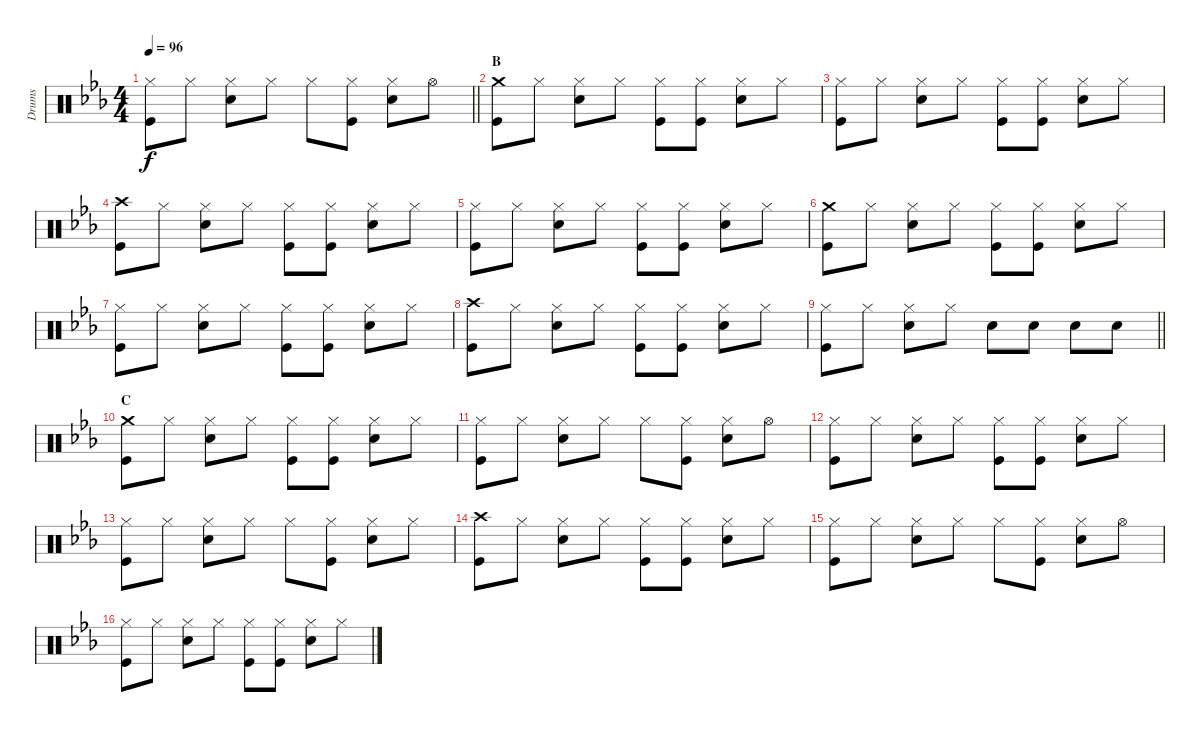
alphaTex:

\track ("Drums" "Drums") {instrument percussion}
\staff {score}
\articulation defaults
\ts (4 4)
\tempo 96
\clef neutral
\barLineRight lightlight
\ks cminor
("Hi-Hat (closed)" "Kick (hit)").8{dy f} "Hi-Hat (closed)".8 ("Hi-Hat (closed)" "Snare (hit) 2").8 "Hi-Hat (closed)".8 "Hi-Hat (closed)".8 ("Hi-Hat (closed)" "Kick (hit)").8 ("Hi-Hat (closed)" "Snare (hit) 2").8 "Hi-Hat (open)".8 |
\section ("" "B")
("Crash medium (hit)" "Kick (hit)").8 "Hi-Hat (closed)".8 ("Hi-Hat (closed)" "Snare (hit) 2").8 "Hi-Hat (closed)".8 ("Hi-Hat (closed)" "Kick (hit)").8 ("Hi-Hat (closed)" "Kick (hit)").8 ("Hi-Hat (closed)" "Snare (hit) 2").8 "Hi-Hat (closed)".8 |
("Hi-Hat (closed)" "Kick (hit)").8 "Hi-Hat (closed)".8 ("Hi-Hat (closed)" "Snare (hit) 2").8 "Hi-Hat (closed)".8 ("Hi-Hat (closed)" "Kick (hit)").8 ("Hi-Hat (closed)" "Kick (hit)").8 ("Hi-Hat (closed)" "Snare (hit) 2").8 "Hi-Hat (closed)".8 |
("Crash high (hit)" "Kick (hit)").8 "Hi-Hat (closed)".8 ("Hi-Hat (closed)" "Snare (hit) 2").8 "Hi-Hat (closed)".8 ("Hi-Hat (closed)" "Kick (hit)").8 ("Hi-Hat (closed)" "Kick (hit)").8 ("Hi-Hat (closed)" "Snare (hit) 2").8 "Hi-Hat (closed)".8 |
("Hi-Hat (closed)" "Kick (hit)").8 "Hi-Hat (closed)".8 ("Hi-Hat (closed)" "Snare (hit) 2").8 "Hi-Hat (closed)".8 ("Hi-Hat (closed)" "Kick (hit)").8 ("Hi-Hat (closed)" "Kick (hit)").8 ("Hi-Hat (closed)" "Snare (hit) 2").8 "Hi-Hat (closed)".8 |
("Crash medium (hit)" "Kick (hit)").8 "Hi-Hat (closed)".8 ("Hi-Hat (closed)" "Snare (hit) 2").8 "Hi-Hat (closed)".8 ("Hi-Hat (closed)" "Kick (hit)").8 ("Hi-Hat (closed)" "Kick (hit)").8 ("Hi-Hat (closed)" "Snare (hit) 2").8 "Hi-Hat (closed)".8 |
("Hi-Hat (closed)" "Kick (hit)").8 "Hi-Hat (closed)".8 ("Hi-Hat (closed)" "Snare (hit) 2").8 "Hi-Hat (closed)".8 ("Hi-Hat (closed)" "Kick (hit)").8 ("Hi-Hat (closed)" "Kick (hit)").8 ("Hi-Hat (closed)" "Snare (hit) 2").8 "Hi-Hat (closed)".8 |
("Crash high (hit)" "Kick (hit)").8 "Hi-Hat (closed)".8 ("Hi-Hat (closed)" "Snare (hit) 2").8 "Hi-Hat (closed)".8 ("Hi-Hat (closed)" "Kick (hit)").8 ("Hi-Hat (closed)" "Kick (hit)").8 ("Hi-Hat (closed)" "Snare (hit) 2").8 "Hi-Hat (closed)".8 |
\barLineRight lightlight
("Hi-Hat (closed)" "Kick (hit)").8 "Hi-Hat (closed)".8 ("Hi-Hat (closed)" "Snare (hit) 2").8 "Hi-Hat (closed)".8 "Snare (hit) 2".8 "Snare (hit) 2".8 "Snare (hit) 2".8 "Snare (hit) 2".8 |
\section ("" "C")
("Crash medium (hit)" "Kick (hit)").8 "Hi-Hat (closed)".8 ("Hi-Hat (closed)" "Snare (hit) 2").8 "Hi-Hat (closed)".8 ("Hi-Hat (closed)" "Kick (hit)").8 ("Hi-Hat (closed)" "Kick (hit)").8 ("Hi-Hat (closed)" "Snare (hit) 2").8 "Hi-Hat (closed)".8 |
("Hi-Hat (closed)" "Kick (hit)").8 "Hi-Hat (closed)".8 ("Hi-Hat (closed)" "Snare (hit) 2").8 "Hi-Hat (closed)".8 "Hi-Hat (closed)".8 ("Hi-Hat (closed)" "Kick (hit)").8 ("Hi-Hat (closed)" "Snare (hit) 2").8 "Hi-Hat (open)".8 |
("Hi-Hat (closed)" "Kick (hit)").8 "Hi-Hat (closed)".8 ("Hi-Hat (closed)" "Snare (hit) 2").8 "Hi-Hat (closed)".8 ("Hi-Hat (closed)" "Kick (hit)").8 ("Hi-Hat (closed)" "Kick (hit)").8 ("Hi-Hat (closed)" "Snare (hit) 2").8 "Hi-Hat (closed)".8 |
("Hi-Hat (closed)" "Kick (hit)").8 "Hi-Hat (closed)".8 ("Hi-Hat (closed)" "Snare (hit) 2").8 "Hi-Hat (closed)".8 "Hi-Hat (closed)".8 ("Hi-Hat (closed)" "Kick (hit)").8 ("Hi-Hat (closed)" "Snare (hit) 2").8 "Hi-Hat (closed)".8 |
("Crash high (hit)" "Kick (hit)").8 "Hi-Hat (closed)".8 ("Hi-Hat (closed)" "Snare (hit) 2").8 "Hi-Hat (closed)".8 ("Hi-Hat (closed)" "Kick (hit)").8 ("Hi-Hat (closed)" "Kick (hit)").8 ("Hi-Hat (closed)" "Snare (hit) 2").8 "Hi-Hat (closed)".8 |
("Hi-Hat (closed)" "Kick (hit)").8 "Hi-Hat (closed)".8 ("Hi-Hat (closed)" "Snare (hit) 2").8 "Hi-Hat (closed)".8 "Hi-Hat (closed)".8 ("Hi-Hat (closed)" "Kick (hit)").8 ("Hi-Hat (closed)" "Snare (hit) 2").8 "Hi-Hat (open)".8 |
("Hi-Hat (closed)" "Kick (hit)").8 "Hi-Hat (closed)".8 ("Hi-Hat (closed)" "Snare (hit) 2").8 "Hi-Hat (closed)".8 ("Hi-Hat (closed)" "Kick (hit)").8 ("Hi-Hat (closed)" "Kick (hit)").8 ("Hi-Hat (closed)" "Snare (hit) 2").8 "Hi-Hat (closed)".8
